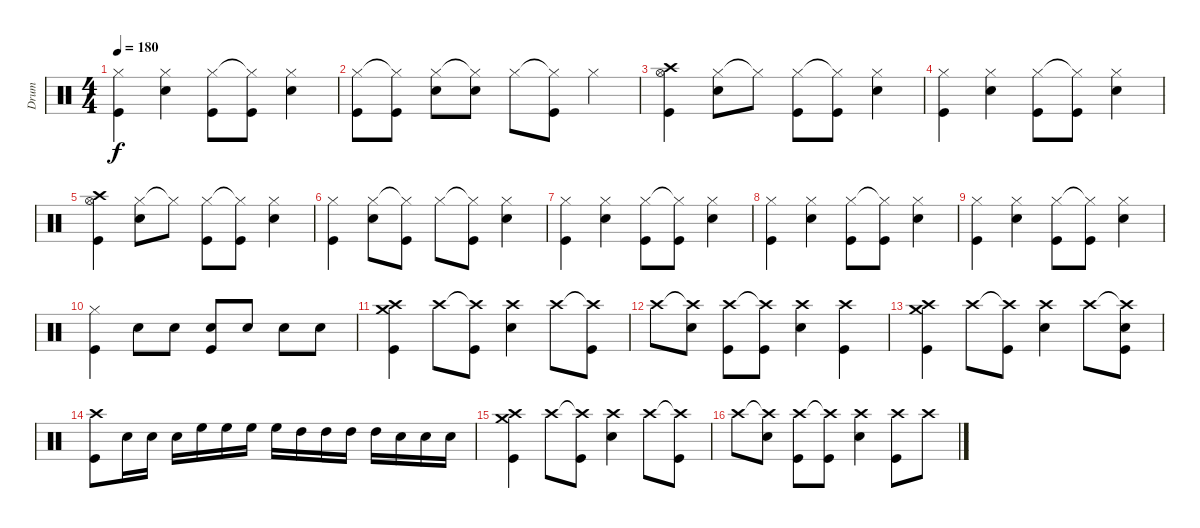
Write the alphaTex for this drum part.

\track ("Drum" "Drum") {instrument percussion}
\staff {score}
\articulation defaults
\ts (4 4)
\tempo 180
\clef neutral
\ks c
("Hi-Hat (closed)" "Kick (hit)").4{dy f} ("Hi-Hat (closed)" "Snare (hit) 2").4 ("Hi-Hat (closed)" "Kick (hit)").8 ("Hi-Hat (closed)"{t} "Kick (hit)").8 ("Hi-Hat (closed)" "Snare (hit) 2").4 |
("Hi-Hat (closed)" "Kick (hit)").8 ("Hi-Hat (closed)"{t} "Kick (hit)").8 ("Hi-Hat (closed)" "Snare (hit) 2").8 ("Hi-Hat (closed)"{t} "Snare (hit) 2").8 "Hi-Hat (closed)".8 ("Hi-Hat (closed)"{t} "Kick (hit)").8 "Hi-Hat (closed)".4 |
("Crash high (hit)" "Hi-Hat (open)" "Kick (hit)").4 ("Hi-Hat (closed)" "Snare (hit) 2").8 "Hi-Hat (closed)"{t}.8 ("Hi-Hat (closed)" "Kick (hit)").8 ("Hi-Hat (closed)"{t} "Kick (hit)").8 ("Hi-Hat (closed)" "Snare (hit) 2").4 |
("Hi-Hat (closed)" "Kick (hit)").4 ("Hi-Hat (closed)" "Snare (hit) 2").4 ("Hi-Hat (closed)" "Kick (hit)").8 ("Hi-Hat (closed)"{t} "Kick (hit)").8 ("Hi-Hat (closed)" "Snare (hit) 2").4 |
("Crash high (hit)" "Hi-Hat (open)" "Kick (hit)").4 ("Hi-Hat (closed)" "Snare (hit) 2").8 "Hi-Hat (closed)"{t}.8 ("Hi-Hat (closed)" "Kick (hit)").8 ("Hi-Hat (closed)"{t} "Kick (hit)").8 ("Hi-Hat (closed)" "Snare (hit) 2").4 |
("Hi-Hat (closed)" "Kick (hit)").4 ("Hi-Hat (closed)" "Snare (hit) 2").8 ("Hi-Hat (closed)"{t} "Kick (hit)").8 "Hi-Hat (closed)".8 ("Hi-Hat (closed)"{t} "Kick (hit)").8 ("Hi-Hat (closed)" "Snare (hit) 2").4 |
("Hi-Hat (closed)" "Kick (hit)").4 ("Hi-Hat (closed)" "Snare (hit) 2").4 ("Hi-Hat (closed)" "Kick (hit)").8 ("Hi-Hat (closed)"{t} "Kick (hit)").8 ("Hi-Hat (closed)" "Snare (hit) 2").4 |
("Hi-Hat (closed)" "Kick (hit)").4 ("Hi-Hat (closed)" "Snare (hit) 2").4 ("Hi-Hat (closed)" "Kick (hit)").8 ("Hi-Hat (closed)"{t} "Kick (hit)").8 ("Hi-Hat (closed)" "Snare (hit) 2").4 |
("Hi-Hat (closed)" "Kick (hit)").4 ("Hi-Hat (closed)" "Snare (hit) 2").4 ("Hi-Hat (closed)" "Kick (hit)").8 ("Hi-Hat (closed)"{t} "Kick (hit)").8 ("Hi-Hat (closed)" "Snare (hit) 2").4 |
("Hi-Hat (closed)" "Kick (hit)").4 "Snare (hit) 2".8 "Snare (hit) 2".8 ("Snare (hit) 2" "Kick (hit)").8 "Snare (hit) 2".8 "Snare (hit) 2".8 "Snare (hit) 2".8 |
("Crash high (hit)" "Crash medium (hit)" "Kick (hit)").4 "Crash high (hit)".8 ("Crash high (hit)"{t} "Kick (hit)").8 ("Crash high (hit)" "Snare (hit) 2").4 "Crash high (hit)".8 ("Crash high (hit)"{t} "Kick (hit)").8 |
"Crash high (hit)".8 ("Crash high (hit)"{t} "Snare (hit) 2").8 ("Crash high (hit)" "Kick (hit)").8 ("Crash high (hit)"{t} "Kick (hit)").8 ("Crash high (hit)" "Snare (hit) 2").4 ("Crash high (hit)" "Kick (hit)").4 |
("Crash high (hit)" "Crash medium (hit)" "Kick (hit)").4 "Crash high (hit)".8 ("Crash high (hit)"{t} "Kick (hit)").8 ("Crash high (hit)" "Snare (hit) 2").4 "Crash high (hit)".8 ("Crash high (hit)"{t} "Snare (hit) 2" "Kick (hit)").8 |
("Crash high (hit)" "Kick (hit)").8 "Snare (hit) 2".16 "Snare (hit) 2".16 "Snare (hit) 2".16 "High Floor Tom (hit)".16 "High Floor Tom (hit)".16 "High Floor Tom (hit)".16 "High Floor Tom (hit)".16 "High Tom (hit)".16 "High Tom (hit)".16 "High Tom (hit)".16 "High Tom (hit)".16 "Snare (hit) 2".16 "Snare (hit) 2".16 "Snare (hit) 2".16 |
("Crash high (hit)" "Crash medium (hit)" "Kick (hit)").4 "Crash high (hit)".8 ("Crash high (hit)"{t} "Kick (hit)").8 ("Crash high (hit)" "Snare (hit) 2").4 "Crash high (hit)".8 ("Crash high (hit)"{t} "Kick (hit)").8 |
"Crash high (hit)".8 ("Crash high (hit)"{t} "Snare (hit) 2").8 ("Crash high (hit)" "Kick (hit)").8 ("Crash high (hit)"{t} "Kick (hit)").8 ("Crash high (hit)" "Snare (hit) 2").4 ("Crash high (hit)" "Kick (hit)").8 "Crash high (hit)".8
